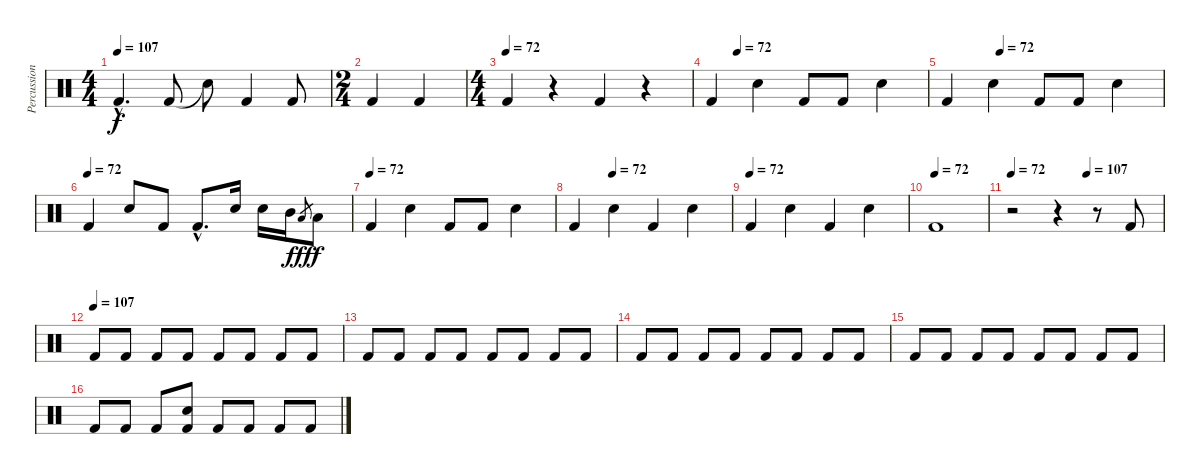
\track ("Percussion" "Percussion") {instrument percussion}
\staff {score}
\articulation defaults
\ts (4 4)
\tempo 107
\clef neutral
\ks c "Kick (hit) 2"{hac}.4{d dy f} "Kick (hit) 2".8 "Snare (hit)"{t}.8 "Kick (hit) 2".4 "Kick (hit) 2".8
|
\ts (2 4)
"Kick (hit) 2".4 "Kick (hit) 2".4 |
\ts (4 4)
\tempo (72)
"Kick (hit) 2".4 r.4 "Kick (hit) 2".4 r.4 |
\tempo (72 0.125)
"Kick (hit) 2".4 "Electric Snare (hit)".4 "Kick (hit) 2".8 "Kick (hit) 2".8 "Electric Snare (hit)".4 |
\tempo (72 0.25)
"Kick (hit) 2".4 "Electric Snare (hit)".4 "Kick (hit) 2".8 "Kick (hit) 2".8 "Electric Snare (hit)".4 |
\tempo (72)
"Kick (hit) 2".4 "Electric Snare (hit)".8 "Kick (hit) 2".8 "Kick (hit) 2"{hac}.8{d} "Electric Snare (hit)".16 "Electric Snare (hit)".16 "Mid Tom (hit)".16 "Low Floor Tom (hit)"{h}.8{gr dy fff} "Low Floor Tom (hit)".8{dy f} |
\tempo (72)
"Kick (hit) 2".4 "Electric Snare (hit)".4 "Kick (hit) 2".8 "Kick (hit) 2".8 "Electric Snare (hit)".4 |
\tempo (72 0.25)
"Kick (hit) 2".4 "Electric Snare (hit)".4 "Kick (hit) 2".4 "Electric Snare (hit)".4 |
\tempo (72)
"Kick (hit) 2".4 "Electric Snare (hit)".4 "Kick (hit) 2".4 "Electric Snare (hit)".4 |
\tempo (72)
"Kick (hit) 2".1 |
\tempo (107 0.5)
\tempo 72
r.2 r.4 r.8 "Kick (hit) 2".8 |
\tempo (107)
"Kick (hit) 2".8 "Kick (hit) 2".8 "Kick (hit) 2".8 "Kick (hit) 2".8 "Kick (hit) 2".8 "Kick (hit) 2".8 "Kick (hit) 2".8 "Kick (hit) 2".8 |
"Kick (hit) 2".8 "Kick (hit) 2".8 "Kick (hit) 2".8 "Kick (hit) 2".8 "Kick (hit) 2".8 "Kick (hit) 2".8 "Kick (hit) 2".8 "Kick (hit) 2".8 |
"Kick (hit) 2".8 "Kick (hit) 2".8 "Kick (hit) 2".8 "Kick (hit) 2".8 "Kick (hit) 2".8 "Kick (hit) 2".8 "Kick (hit) 2".8 "Kick (hit) 2".8 |
"Kick (hit) 2".8 "Kick (hit) 2".8 "Kick (hit) 2".8 "Kick (hit) 2".8 "Kick (hit) 2".8 "Kick (hit) 2".8 "Kick (hit) 2".8 "Kick (hit) 2".8 |
"Kick (hit) 2".8 "Kick (hit) 2".8 "Kick (hit) 2".8 ("Electric Snare (hit)" "Kick (hit) 2").8 "Kick (hit) 2".8 "Kick (hit) 2".8 "Kick (hit) 2".8 "Kick (hit) 2".8
